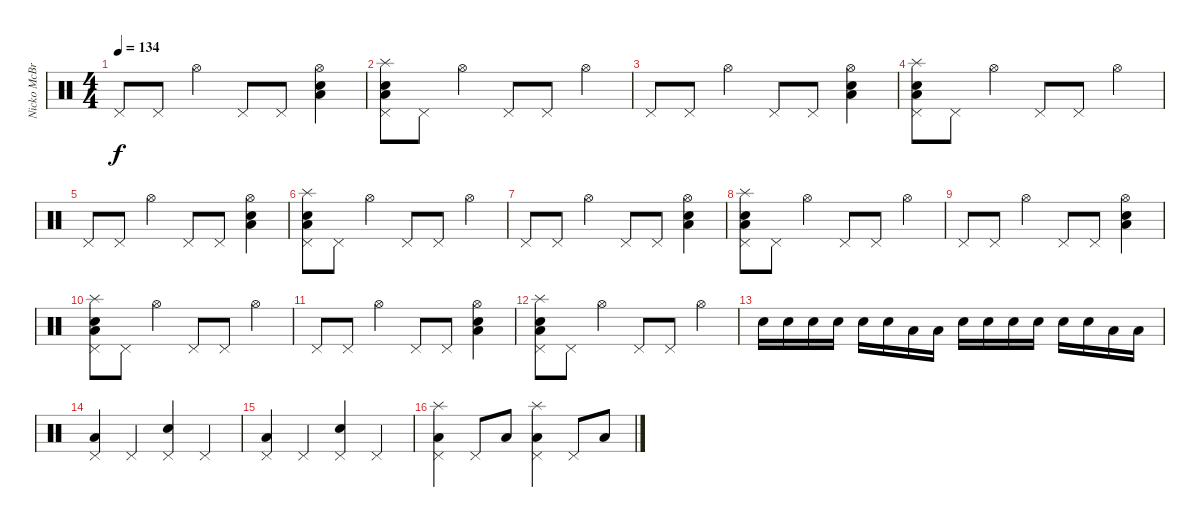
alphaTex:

\track ("Nicko McBrian" "Nicko McBr") {instrument percussion}
\staff {score}
\articulation defaults
\ts (4 4)
\tempo 134
\clef neutral
\ks c "Pedal Hi-Hat (hit)".8{dy f} "Pedal Hi-Hat (hit)".8 "Hi-Hat (open)".4 "Pedal Hi-Hat (hit)".8 "Pedal Hi-Hat (hit)".8
("Electric Snare (hit)" "Low Floor Tom (hit)" "Hi-Hat (open)").4 |
("Electric Snare (hit)" "Low Floor Tom (hit)" "Pedal Hi-Hat (hit)" "Splash (hit)").8 "Pedal Hi-Hat (hit)".8 "Hi-Hat (open)".4 "Pedal Hi-Hat (hit)".8 "Pedal Hi-Hat (hit)".8 "Hi-Hat (open)".4 |
"Pedal Hi-Hat (hit)".8 "Pedal Hi-Hat (hit)".8 "Hi-Hat (open)".4 "Pedal Hi-Hat (hit)".8 "Pedal Hi-Hat (hit)".8 ("Electric Snare (hit)" "Low Floor Tom (hit)" "Hi-Hat (open)").4 |
("Electric Snare (hit)" "Low Floor Tom (hit)" "Pedal Hi-Hat (hit)" "Splash (hit)").8 "Pedal Hi-Hat (hit)".8 "Hi-Hat (open)".4 "Pedal Hi-Hat (hit)".8 "Pedal Hi-Hat (hit)".8 "Hi-Hat (open)".4 |
"Pedal Hi-Hat (hit)".8 "Pedal Hi-Hat (hit)".8 "Hi-Hat (open)".4 "Pedal Hi-Hat (hit)".8 "Pedal Hi-Hat (hit)".8 ("Electric Snare (hit)" "Low Floor Tom (hit)" "Hi-Hat (open)").4 |
("Electric Snare (hit)" "Low Floor Tom (hit)" "Pedal Hi-Hat (hit)" "Splash (hit)").8 "Pedal Hi-Hat (hit)".8 "Hi-Hat (open)".4 "Pedal Hi-Hat (hit)".8 "Pedal Hi-Hat (hit)".8 "Hi-Hat (open)".4 |
"Pedal Hi-Hat (hit)".8 "Pedal Hi-Hat (hit)".8 "Hi-Hat (open)".4 "Pedal Hi-Hat (hit)".8 "Pedal Hi-Hat (hit)".8 ("Electric Snare (hit)" "Low Floor Tom (hit)" "Hi-Hat (open)").4 |
("Electric Snare (hit)" "Low Floor Tom (hit)" "Pedal Hi-Hat (hit)" "Splash (hit)").8 "Pedal Hi-Hat (hit)".8 "Hi-Hat (open)".4 "Pedal Hi-Hat (hit)".8 "Pedal Hi-Hat (hit)".8 "Hi-Hat (open)".4 |
"Pedal Hi-Hat (hit)".8 "Pedal Hi-Hat (hit)".8 "Hi-Hat (open)".4 "Pedal Hi-Hat (hit)".8 "Pedal Hi-Hat (hit)".8 ("Electric Snare (hit)" "Low Floor Tom (hit)" "Hi-Hat (open)").4 |
("Electric Snare (hit)" "Low Floor Tom (hit)" "Pedal Hi-Hat (hit)" "Splash (hit)").8 "Pedal Hi-Hat (hit)".8 "Hi-Hat (open)".4 "Pedal Hi-Hat (hit)".8 "Pedal Hi-Hat (hit)".8 "Hi-Hat (open)".4 |
"Pedal Hi-Hat (hit)".8 "Pedal Hi-Hat (hit)".8 "Hi-Hat (open)".4 "Pedal Hi-Hat (hit)".8 "Pedal Hi-Hat (hit)".8 ("Electric Snare (hit)" "Low Floor Tom (hit)" "Hi-Hat (open)").4 |
("Electric Snare (hit)" "Low Floor Tom (hit)" "Pedal Hi-Hat (hit)" "Splash (hit)").8 "Pedal Hi-Hat (hit)".8 "Hi-Hat (open)".4 "Pedal Hi-Hat (hit)".8 "Pedal Hi-Hat (hit)".8 "Hi-Hat (open)".4 |
"Electric Snare (hit)".16 "Electric Snare (hit)".16 "Electric Snare (hit)".16 "Electric Snare (hit)".16 "Electric Snare (hit)".16 "Electric Snare (hit)".16 "Low Floor Tom (hit)".16 "Low Floor Tom (hit)".16 "Electric Snare (hit)".16 "Electric Snare (hit)".16 "Electric Snare (hit)".16 "Electric Snare (hit)".16 "Electric Snare (hit)".16 "Electric Snare (hit)".16 "Low Floor Tom (hit)".16 "Low Floor Tom (hit)".16 |
("Low Floor Tom (hit)" "Pedal Hi-Hat (hit)").4 "Pedal Hi-Hat (hit)".4 ("Electric Snare (hit)" "Pedal Hi-Hat (hit)").4 "Pedal Hi-Hat (hit)".4 |
("Low Floor Tom (hit)" "Pedal Hi-Hat (hit)").4 "Pedal Hi-Hat (hit)".4 ("Electric Snare (hit)" "Pedal Hi-Hat (hit)").4 "Pedal Hi-Hat (hit)".4 |
("Low Floor Tom (hit)" "Pedal Hi-Hat (hit)" "Splash (hit)").4 "Pedal Hi-Hat (hit)".8 "Low Floor Tom (hit)".8 ("Low Floor Tom (hit)" "Pedal Hi-Hat (hit)" "Splash (hit)").4 "Pedal Hi-Hat (hit)".8 "Low Floor Tom (hit)".8
